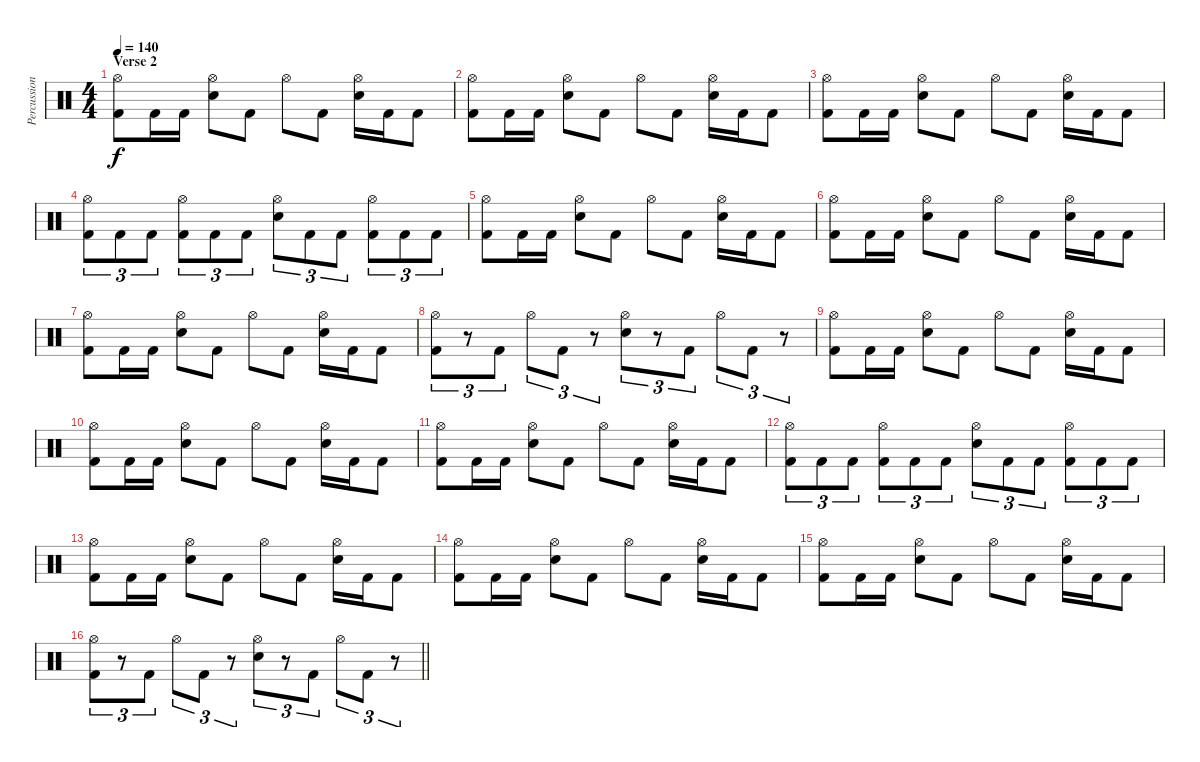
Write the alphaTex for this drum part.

\track ("Percussion" "Percussion") {instrument percussion}
\staff {score}
\articulation defaults
\ts (4 4)
\section ("" "Verse 2")
\tempo 140
\clef neutral
\ks c
("Hi-Hat (open)" "Kick (hit) 2").8{dy f} "Kick (hit) 2".16 "Kick (hit) 2".16 ("Hi-Hat (open)" "Electric Snare (hit)").8 "Kick (hit) 2".8 "Hi-Hat (open)".8 "Kick (hit) 2".8 ("Hi-Hat (open)" "Electric Snare (hit)").16 "Kick (hit) 2".16 "Kick (hit) 2".8 |
("Hi-Hat (open)" "Kick (hit) 2").8 "Kick (hit) 2".16 "Kick (hit) 2".16 ("Hi-Hat (open)" "Electric Snare (hit)").8 "Kick (hit) 2".8 "Hi-Hat (open)".8 "Kick (hit) 2".8 ("Hi-Hat (open)" "Electric Snare (hit)").16 "Kick (hit) 2".16 "Kick (hit) 2".8 |
("Hi-Hat (open)" "Kick (hit) 2").8 "Kick (hit) 2".16 "Kick (hit) 2".16 ("Hi-Hat (open)" "Electric Snare (hit)").8 "Kick (hit) 2".8 "Hi-Hat (open)".8 "Kick (hit) 2".8 ("Hi-Hat (open)" "Electric Snare (hit)").16 "Kick (hit) 2".16 "Kick (hit) 2".8 |
("Hi-Hat (open)" "Kick (hit) 2").8{tu (3 2)} "Kick (hit) 2".8{tu (3 2)} "Kick (hit) 2".8{tu (3 2)} ("Hi-Hat (open)" "Kick (hit) 2").8{tu (3 2)} "Kick (hit) 2".8{tu (3 2)} "Kick (hit) 2".8{tu (3 2)} ("Hi-Hat (open)" "Electric Snare (hit)").8{tu (3 2)} "Kick (hit) 2".8{tu (3 2)} "Kick (hit) 2".8{tu (3 2)} ("Hi-Hat (open)" "Kick (hit) 2").8{tu (3 2)} "Kick (hit) 2".8{tu (3 2)} "Kick (hit) 2".8{tu (3 2)} |
("Hi-Hat (open)" "Kick (hit) 2").8 "Kick (hit) 2".16 "Kick (hit) 2".16 ("Hi-Hat (open)" "Electric Snare (hit)").8 "Kick (hit) 2".8 "Hi-Hat (open)".8 "Kick (hit) 2".8 ("Hi-Hat (open)" "Electric Snare (hit)").16 "Kick (hit) 2".16 "Kick (hit) 2".8 |
("Hi-Hat (open)" "Kick (hit) 2").8 "Kick (hit) 2".16 "Kick (hit) 2".16 ("Hi-Hat (open)" "Electric Snare (hit)").8 "Kick (hit) 2".8 "Hi-Hat (open)".8 "Kick (hit) 2".8 ("Hi-Hat (open)" "Electric Snare (hit)").16 "Kick (hit) 2".16 "Kick (hit) 2".8 |
("Hi-Hat (open)" "Kick (hit) 2").8 "Kick (hit) 2".16 "Kick (hit) 2".16 ("Hi-Hat (open)" "Electric Snare (hit)").8 "Kick (hit) 2".8 "Hi-Hat (open)".8 "Kick (hit) 2".8 ("Hi-Hat (open)" "Electric Snare (hit)").16 "Kick (hit) 2".16 "Kick (hit) 2".8 |
("Hi-Hat (open)" "Kick (hit) 2").8{tu (3 2)} r.8{tu (3 2)} "Kick (hit) 2".8{tu (3 2)} "Hi-Hat (open)".8{tu (3 2)} "Kick (hit) 2".8{tu (3 2)} r.8{tu (3 2)} ("Hi-Hat (open)" "Electric Snare (hit)").8{tu (3 2)} r.8{tu (3 2)} "Kick (hit) 2".8{tu (3 2)} "Hi-Hat (open)".8{tu (3 2)} "Kick (hit) 2".8{tu (3 2)} r.8{tu (3 2)} |
("Hi-Hat (open)" "Kick (hit) 2").8 "Kick (hit) 2".16 "Kick (hit) 2".16 ("Hi-Hat (open)" "Electric Snare (hit)").8 "Kick (hit) 2".8 "Hi-Hat (open)".8 "Kick (hit) 2".8 ("Hi-Hat (open)" "Electric Snare (hit)").16 "Kick (hit) 2".16 "Kick (hit) 2".8 |
("Hi-Hat (open)" "Kick (hit) 2").8 "Kick (hit) 2".16 "Kick (hit) 2".16 ("Hi-Hat (open)" "Electric Snare (hit)").8 "Kick (hit) 2".8 "Hi-Hat (open)".8 "Kick (hit) 2".8 ("Hi-Hat (open)" "Electric Snare (hit)").16 "Kick (hit) 2".16 "Kick (hit) 2".8 |
("Hi-Hat (open)" "Kick (hit) 2").8 "Kick (hit) 2".16 "Kick (hit) 2".16 ("Hi-Hat (open)" "Electric Snare (hit)").8 "Kick (hit) 2".8 "Hi-Hat (open)".8 "Kick (hit) 2".8 ("Hi-Hat (open)" "Electric Snare (hit)").16 "Kick (hit) 2".16 "Kick (hit) 2".8 |
("Hi-Hat (open)" "Kick (hit) 2").8{tu (3 2)} "Kick (hit) 2".8{tu (3 2)} "Kick (hit) 2".8{tu (3 2)} ("Hi-Hat (open)" "Kick (hit) 2").8{tu (3 2)} "Kick (hit) 2".8{tu (3 2)} "Kick (hit) 2".8{tu (3 2)} ("Hi-Hat (open)" "Electric Snare (hit)").8{tu (3 2)} "Kick (hit) 2".8{tu (3 2)} "Kick (hit) 2".8{tu (3 2)} ("Hi-Hat (open)" "Kick (hit) 2").8{tu (3 2)} "Kick (hit) 2".8{tu (3 2)} "Kick (hit) 2".8{tu (3 2)} |
("Hi-Hat (open)" "Kick (hit) 2").8 "Kick (hit) 2".16 "Kick (hit) 2".16 ("Hi-Hat (open)" "Electric Snare (hit)").8 "Kick (hit) 2".8 "Hi-Hat (open)".8 "Kick (hit) 2".8 ("Hi-Hat (open)" "Electric Snare (hit)").16 "Kick (hit) 2".16 "Kick (hit) 2".8 |
("Hi-Hat (open)" "Kick (hit) 2").8 "Kick (hit) 2".16 "Kick (hit) 2".16 ("Hi-Hat (open)" "Electric Snare (hit)").8 "Kick (hit) 2".8 "Hi-Hat (open)".8 "Kick (hit) 2".8 ("Hi-Hat (open)" "Electric Snare (hit)").16 "Kick (hit) 2".16 "Kick (hit) 2".8 |
("Hi-Hat (open)" "Kick (hit) 2").8 "Kick (hit) 2".16 "Kick (hit) 2".16 ("Hi-Hat (open)" "Electric Snare (hit)").8 "Kick (hit) 2".8 "Hi-Hat (open)".8 "Kick (hit) 2".8 ("Hi-Hat (open)" "Electric Snare (hit)").16 "Kick (hit) 2".16 "Kick (hit) 2".8 |
\barLineRight lightlight
("Hi-Hat (open)" "Kick (hit) 2").8{tu (3 2)} r.8{tu (3 2)} "Kick (hit) 2".8{tu (3 2)} "Hi-Hat (open)".8{tu (3 2)} "Kick (hit) 2".8{tu (3 2)} r.8{tu (3 2)} ("Hi-Hat (open)" "Electric Snare (hit)").8{tu (3 2)} r.8{tu (3 2)} "Kick (hit) 2".8{tu (3 2)} "Hi-Hat (open)".8{tu (3 2)} "Kick (hit) 2".8{tu (3 2)} r.8{tu (3 2)}
